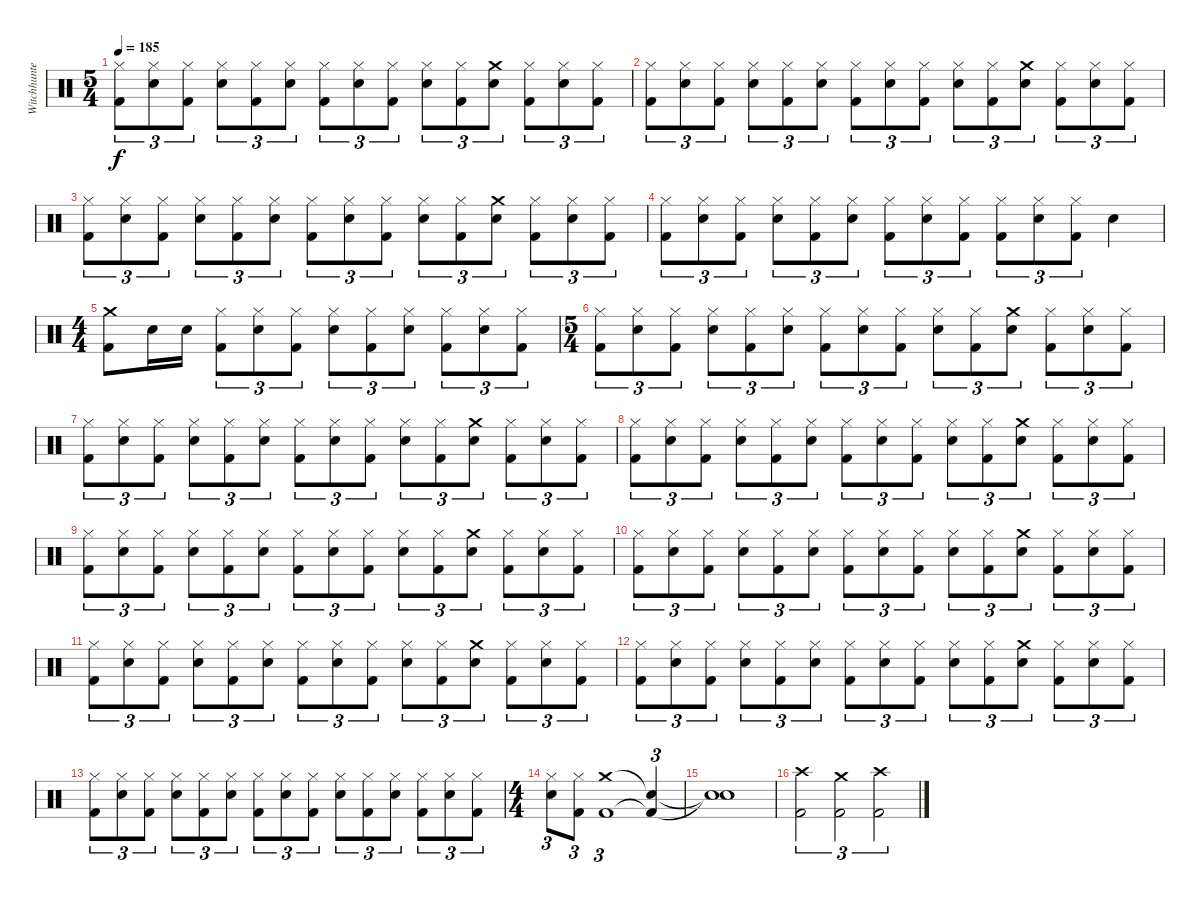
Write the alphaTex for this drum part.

\track ("Witchhunter" "Witchhunte") {instrument percussion}
\staff {score}
\articulation defaults
\ts (5 4)
\tempo 185
\clef neutral
\ks c
("Hi-Hat (closed)" "Kick (hit) 2").8{tu (3 2) dy f} ("Hi-Hat (closed)" "Snare (hit) 2").8{tu (3 2)} ("Hi-Hat (closed)" "Kick (hit) 2").8{tu (3 2)} ("Hi-Hat (closed)" "Snare (hit) 2").8{tu (3 2)} ("Hi-Hat (closed)" "Kick (hit) 2").8{tu (3 2)} ("Hi-Hat (closed)" "Snare (hit) 2").8{tu (3 2)} ("Hi-Hat (closed)" "Kick (hit) 2").8{tu (3 2)} ("Hi-Hat (closed)" "Snare (hit) 2").8{tu (3 2)} ("Hi-Hat (closed)" "Kick (hit) 2").8{tu (3 2)} ("Hi-Hat (closed)" "Snare (hit) 2").8{tu (3 2)} ("Hi-Hat (closed)" "Kick (hit) 2").8{tu (3 2)} ("Crash medium (hit)" "Snare (hit) 2").8{tu (3 2)} ("Hi-Hat (closed)" "Kick (hit) 2").8{tu (3 2)} ("Hi-Hat (closed)" "Snare (hit) 2").8{tu (3 2)} ("Hi-Hat (closed)" "Kick (hit) 2").8{tu (3 2)} |
("Hi-Hat (closed)" "Kick (hit) 2").8{tu (3 2)} ("Hi-Hat (closed)" "Snare (hit) 2").8{tu (3 2)} ("Hi-Hat (closed)" "Kick (hit) 2").8{tu (3 2)} ("Hi-Hat (closed)" "Snare (hit) 2").8{tu (3 2)} ("Hi-Hat (closed)" "Kick (hit) 2").8{tu (3 2)} ("Hi-Hat (closed)" "Snare (hit) 2").8{tu (3 2)} ("Hi-Hat (closed)" "Kick (hit) 2").8{tu (3 2)} ("Hi-Hat (closed)" "Snare (hit) 2").8{tu (3 2)} ("Hi-Hat (closed)" "Kick (hit) 2").8{tu (3 2)} ("Hi-Hat (closed)" "Snare (hit) 2").8{tu (3 2)} ("Hi-Hat (closed)" "Kick (hit) 2").8{tu (3 2)} ("Crash medium (hit)" "Snare (hit) 2").8{tu (3 2)} ("Hi-Hat (closed)" "Kick (hit) 2").8{tu (3 2)} ("Hi-Hat (closed)" "Snare (hit) 2").8{tu (3 2)} ("Hi-Hat (closed)" "Kick (hit) 2").8{tu (3 2)} |
("Hi-Hat (closed)" "Kick (hit) 2").8{tu (3 2)} ("Hi-Hat (closed)" "Snare (hit) 2").8{tu (3 2)} ("Hi-Hat (closed)" "Kick (hit) 2").8{tu (3 2)} ("Hi-Hat (closed)" "Snare (hit) 2").8{tu (3 2)} ("Hi-Hat (closed)" "Kick (hit) 2").8{tu (3 2)} ("Hi-Hat (closed)" "Snare (hit) 2").8{tu (3 2)} ("Hi-Hat (closed)" "Kick (hit) 2").8{tu (3 2)} ("Hi-Hat (closed)" "Snare (hit) 2").8{tu (3 2)} ("Hi-Hat (closed)" "Kick (hit) 2").8{tu (3 2)} ("Hi-Hat (closed)" "Snare (hit) 2").8{tu (3 2)} ("Hi-Hat (closed)" "Kick (hit) 2").8{tu (3 2)} ("Crash medium (hit)" "Snare (hit) 2").8{tu (3 2)} ("Hi-Hat (closed)" "Kick (hit) 2").8{tu (3 2)} ("Hi-Hat (closed)" "Snare (hit) 2").8{tu (3 2)} ("Hi-Hat (closed)" "Kick (hit) 2").8{tu (3 2)} |
("Hi-Hat (closed)" "Kick (hit) 2").8{tu (3 2)} ("Hi-Hat (closed)" "Snare (hit) 2").8{tu (3 2)} ("Hi-Hat (closed)" "Kick (hit) 2").8{tu (3 2)} ("Hi-Hat (closed)" "Snare (hit) 2").8{tu (3 2)} ("Hi-Hat (closed)" "Kick (hit) 2").8{tu (3 2)} ("Hi-Hat (closed)" "Snare (hit) 2").8{tu (3 2)} ("Hi-Hat (closed)" "Kick (hit) 2").8{tu (3 2)} ("Hi-Hat (closed)" "Snare (hit) 2").8{tu (3 2)} ("Hi-Hat (closed)" "Kick (hit) 2").8{tu (3 2)} ("Hi-Hat (closed)" "Kick (hit) 2").8{tu (3 2)} ("Hi-Hat (closed)" "Snare (hit) 2").8{tu (3 2)} ("Hi-Hat (closed)" "Kick (hit) 2").8{tu (3 2)} "Snare (hit) 2".4 |
\ts (4 4)
("Crash medium (hit)" "Kick (hit) 2").8 "Snare (hit) 2".16 "Snare (hit) 2".16 ("Hi-Hat (closed)" "Kick (hit) 2").8{tu (3 2)} ("Hi-Hat (closed)" "Snare (hit) 2").8{tu (3 2)} ("Hi-Hat (closed)" "Kick (hit) 2").8{tu (3 2)} ("Hi-Hat (closed)" "Snare (hit) 2").8{tu (3 2)} ("Hi-Hat (closed)" "Kick (hit) 2").8{tu (3 2)} ("Hi-Hat (closed)" "Snare (hit) 2").8{tu (3 2)} ("Hi-Hat (closed)" "Kick (hit) 2").8{tu (3 2)} ("Hi-Hat (closed)" "Snare (hit) 2").8{tu (3 2)} ("Hi-Hat (closed)" "Kick (hit) 2").8{tu (3 2)} |
\ts (5 4)
("Hi-Hat (closed)" "Kick (hit) 2").8{tu (3 2)} ("Hi-Hat (closed)" "Snare (hit) 2").8{tu (3 2)} ("Hi-Hat (closed)" "Kick (hit) 2").8{tu (3 2)} ("Hi-Hat (closed)" "Snare (hit) 2").8{tu (3 2)} ("Hi-Hat (closed)" "Kick (hit) 2").8{tu (3 2)} ("Hi-Hat (closed)" "Snare (hit) 2").8{tu (3 2)} ("Hi-Hat (closed)" "Kick (hit) 2").8{tu (3 2)} ("Hi-Hat (closed)" "Snare (hit) 2").8{tu (3 2)} ("Hi-Hat (closed)" "Kick (hit) 2").8{tu (3 2)} ("Hi-Hat (closed)" "Snare (hit) 2").8{tu (3 2)} ("Hi-Hat (closed)" "Kick (hit) 2").8{tu (3 2)} ("Crash medium (hit)" "Snare (hit) 2").8{tu (3 2)} ("Hi-Hat (closed)" "Kick (hit) 2").8{tu (3 2)} ("Hi-Hat (closed)" "Snare (hit) 2").8{tu (3 2)} ("Hi-Hat (closed)" "Kick (hit) 2").8{tu (3 2)} |
("Hi-Hat (closed)" "Kick (hit) 2").8{tu (3 2)} ("Hi-Hat (closed)" "Snare (hit) 2").8{tu (3 2)} ("Hi-Hat (closed)" "Kick (hit) 2").8{tu (3 2)} ("Hi-Hat (closed)" "Snare (hit) 2").8{tu (3 2)} ("Hi-Hat (closed)" "Kick (hit) 2").8{tu (3 2)} ("Hi-Hat (closed)" "Snare (hit) 2").8{tu (3 2)} ("Hi-Hat (closed)" "Kick (hit) 2").8{tu (3 2)} ("Hi-Hat (closed)" "Snare (hit) 2").8{tu (3 2)} ("Hi-Hat (closed)" "Kick (hit) 2").8{tu (3 2)} ("Hi-Hat (closed)" "Snare (hit) 2").8{tu (3 2)} ("Hi-Hat (closed)" "Kick (hit) 2").8{tu (3 2)} ("Crash medium (hit)" "Snare (hit) 2").8{tu (3 2)} ("Hi-Hat (closed)" "Kick (hit) 2").8{tu (3 2)} ("Hi-Hat (closed)" "Snare (hit) 2").8{tu (3 2)} ("Hi-Hat (closed)" "Kick (hit) 2").8{tu (3 2)} |
("Hi-Hat (closed)" "Kick (hit) 2").8{tu (3 2)} ("Hi-Hat (closed)" "Snare (hit) 2").8{tu (3 2)} ("Hi-Hat (closed)" "Kick (hit) 2").8{tu (3 2)} ("Hi-Hat (closed)" "Snare (hit) 2").8{tu (3 2)} ("Hi-Hat (closed)" "Kick (hit) 2").8{tu (3 2)} ("Hi-Hat (closed)" "Snare (hit) 2").8{tu (3 2)} ("Hi-Hat (closed)" "Kick (hit) 2").8{tu (3 2)} ("Hi-Hat (closed)" "Snare (hit) 2").8{tu (3 2)} ("Hi-Hat (closed)" "Kick (hit) 2").8{tu (3 2)} ("Hi-Hat (closed)" "Snare (hit) 2").8{tu (3 2)} ("Hi-Hat (closed)" "Kick (hit) 2").8{tu (3 2)} ("Crash medium (hit)" "Snare (hit) 2").8{tu (3 2)} ("Hi-Hat (closed)" "Kick (hit) 2").8{tu (3 2)} ("Hi-Hat (closed)" "Snare (hit) 2").8{tu (3 2)} ("Hi-Hat (closed)" "Kick (hit) 2").8{tu (3 2)} |
("Hi-Hat (closed)" "Kick (hit) 2").8{tu (3 2)} ("Hi-Hat (closed)" "Snare (hit) 2").8{tu (3 2)} ("Hi-Hat (closed)" "Kick (hit) 2").8{tu (3 2)} ("Hi-Hat (closed)" "Snare (hit) 2").8{tu (3 2)} ("Hi-Hat (closed)" "Kick (hit) 2").8{tu (3 2)} ("Hi-Hat (closed)" "Snare (hit) 2").8{tu (3 2)} ("Hi-Hat (closed)" "Kick (hit) 2").8{tu (3 2)} ("Hi-Hat (closed)" "Snare (hit) 2").8{tu (3 2)} ("Hi-Hat (closed)" "Kick (hit) 2").8{tu (3 2)} ("Hi-Hat (closed)" "Snare (hit) 2").8{tu (3 2)} ("Hi-Hat (closed)" "Kick (hit) 2").8{tu (3 2)} ("Crash medium (hit)" "Snare (hit) 2").8{tu (3 2)} ("Hi-Hat (closed)" "Kick (hit) 2").8{tu (3 2)} ("Hi-Hat (closed)" "Snare (hit) 2").8{tu (3 2)} ("Hi-Hat (closed)" "Kick (hit) 2").8{tu (3 2)} |
("Hi-Hat (closed)" "Kick (hit) 2").8{tu (3 2)} ("Hi-Hat (closed)" "Snare (hit) 2").8{tu (3 2)} ("Hi-Hat (closed)" "Kick (hit) 2").8{tu (3 2)} ("Hi-Hat (closed)" "Snare (hit) 2").8{tu (3 2)} ("Hi-Hat (closed)" "Kick (hit) 2").8{tu (3 2)} ("Hi-Hat (closed)" "Snare (hit) 2").8{tu (3 2)} ("Hi-Hat (closed)" "Kick (hit) 2").8{tu (3 2)} ("Hi-Hat (closed)" "Snare (hit) 2").8{tu (3 2)} ("Hi-Hat (closed)" "Kick (hit) 2").8{tu (3 2)} ("Hi-Hat (closed)" "Snare (hit) 2").8{tu (3 2)} ("Hi-Hat (closed)" "Kick (hit) 2").8{tu (3 2)} ("Crash medium (hit)" "Snare (hit) 2").8{tu (3 2)} ("Hi-Hat (closed)" "Kick (hit) 2").8{tu (3 2)} ("Hi-Hat (closed)" "Snare (hit) 2").8{tu (3 2)} ("Hi-Hat (closed)" "Kick (hit) 2").8{tu (3 2)} |
("Hi-Hat (closed)" "Kick (hit) 2").8{tu (3 2)} ("Hi-Hat (closed)" "Snare (hit) 2").8{tu (3 2)} ("Hi-Hat (closed)" "Kick (hit) 2").8{tu (3 2)} ("Hi-Hat (closed)" "Snare (hit) 2").8{tu (3 2)} ("Hi-Hat (closed)" "Kick (hit) 2").8{tu (3 2)} ("Hi-Hat (closed)" "Snare (hit) 2").8{tu (3 2)} ("Hi-Hat (closed)" "Kick (hit) 2").8{tu (3 2)} ("Hi-Hat (closed)" "Snare (hit) 2").8{tu (3 2)} ("Hi-Hat (closed)" "Kick (hit) 2").8{tu (3 2)} ("Hi-Hat (closed)" "Snare (hit) 2").8{tu (3 2)} ("Hi-Hat (closed)" "Kick (hit) 2").8{tu (3 2)} ("Crash medium (hit)" "Snare (hit) 2").8{tu (3 2)} ("Hi-Hat (closed)" "Kick (hit) 2").8{tu (3 2)} ("Hi-Hat (closed)" "Snare (hit) 2").8{tu (3 2)} ("Hi-Hat (closed)" "Kick (hit) 2").8{tu (3 2)} |
("Hi-Hat (closed)" "Kick (hit) 2").8{tu (3 2)} ("Hi-Hat (closed)" "Snare (hit) 2").8{tu (3 2)} ("Hi-Hat (closed)" "Kick (hit) 2").8{tu (3 2)} ("Hi-Hat (closed)" "Snare (hit) 2").8{tu (3 2)} ("Hi-Hat (closed)" "Kick (hit) 2").8{tu (3 2)} ("Hi-Hat (closed)" "Snare (hit) 2").8{tu (3 2)} ("Hi-Hat (closed)" "Kick (hit) 2").8{tu (3 2)} ("Hi-Hat (closed)" "Snare (hit) 2").8{tu (3 2)} ("Hi-Hat (closed)" "Kick (hit) 2").8{tu (3 2)} ("Hi-Hat (closed)" "Snare (hit) 2").8{tu (3 2)} ("Hi-Hat (closed)" "Kick (hit) 2").8{tu (3 2)} ("Crash medium (hit)" "Snare (hit) 2").8{tu (3 2)} ("Hi-Hat (closed)" "Kick (hit) 2").8{tu (3 2)} ("Hi-Hat (closed)" "Snare (hit) 2").8{tu (3 2)} ("Hi-Hat (closed)" "Kick (hit) 2").8{tu (3 2)} |
("Hi-Hat (closed)" "Kick (hit) 2").8{tu (3 2)} ("Hi-Hat (closed)" "Snare (hit) 2").8{tu (3 2)} ("Hi-Hat (closed)" "Kick (hit) 2").8{tu (3 2)} ("Hi-Hat (closed)" "Snare (hit) 2").8{tu (3 2)} ("Hi-Hat (closed)" "Kick (hit) 2").8{tu (3 2)} ("Hi-Hat (closed)" "Snare (hit) 2").8{tu (3 2)} ("Hi-Hat (closed)" "Kick (hit) 2").8{tu (3 2)} ("Hi-Hat (closed)" "Snare (hit) 2").8{tu (3 2)} ("Hi-Hat (closed)" "Kick (hit) 2").8{tu (3 2)} ("Hi-Hat (closed)" "Snare (hit) 2").8{tu (3 2)} ("Hi-Hat (closed)" "Kick (hit) 2").8{tu (3 2)} ("Hi-Hat (closed)" "Snare (hit) 2").8{tu (3 2)} ("Hi-Hat (closed)" "Kick (hit) 2").8{tu (3 2)} ("Hi-Hat (closed)" "Snare (hit) 2").8{tu (3 2)} ("Hi-Hat (closed)" "Kick (hit) 2").8{tu (3 2)} |
\ts (4 4)
("Hi-Hat (closed)" "Snare (hit) 2").8{tu (3 2)} ("Hi-Hat (closed)" "Kick (hit) 2").8{tu (3 2)} ("Crash medium (hit)" "Kick (hit) 2").1{tu (3 2)} ("Snare (hit)"{t} "Kick (hit) 2"{t}).4{tu (3 2)} |
("Snare (hit)"{t} "Snare (hit)"{t}).1 |
("Crash high (hit)" "Kick (hit) 2").2{tu (3 2)} ("Crash medium (hit)" "Kick (hit) 2").2{tu (3 2)} ("Crash high (hit)" "Kick (hit) 2").2{tu (3 2)}
